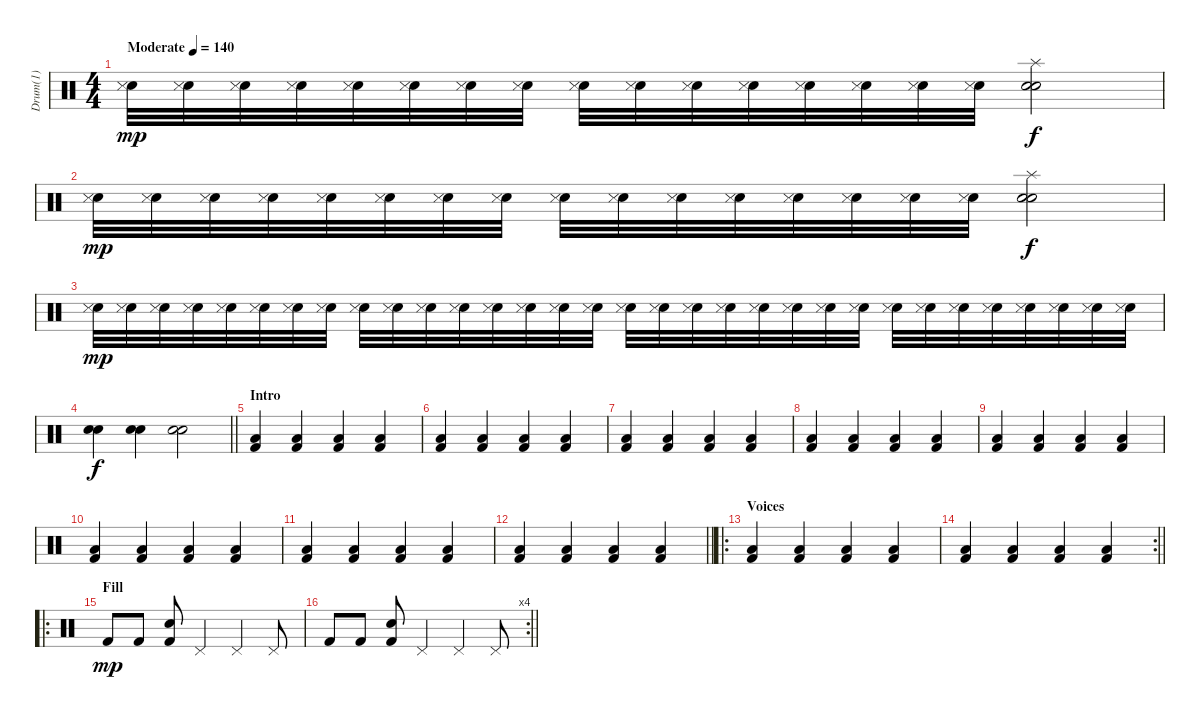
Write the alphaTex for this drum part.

\track ("Drum(1)" "Drum(1)") {instrument percussion}
\staff {score}
\articulation defaults
\ts (4 4)
\tempo (140 "Moderate")
\clef neutral
\ks c
("Electric Snare (hit)" "Snare (side stick) 3").32{dy mp} ("Electric Snare (hit)" "Snare (side stick) 3").32 ("Electric Snare (hit)" "Snare (side stick) 3").32 ("Electric Snare (hit)" "Snare (side stick) 3").32 ("Electric Snare (hit)" "Snare (side stick) 3").32 ("Electric Snare (hit)" "Snare (side stick) 3").32 ("Electric Snare (hit)" "Snare (side stick) 3").32 ("Electric Snare (hit)" "Snare (side stick) 3").32 ("Electric Snare (hit)" "Snare (side stick) 3").32 ("Electric Snare (hit)" "Snare (side stick) 3").32 ("Electric Snare (hit)" "Snare (side stick) 3").32 ("Electric Snare (hit)" "Snare (side stick) 3").32 ("Electric Snare (hit)" "Snare (side stick) 3").32 ("Electric Snare (hit)" "Snare (side stick) 3").32 ("Electric Snare (hit)" "Snare (side stick) 3").32 ("Electric Snare (hit)" "Snare (side stick) 3").32 ("Snare (hit) 2" "Electric Snare (hit)" "Splash (hit)").2{dy f} |
("Electric Snare (hit)" "Snare (side stick) 3").32{dy mp} ("Electric Snare (hit)" "Snare (side stick) 3").32 ("Electric Snare (hit)" "Snare (side stick) 3").32 ("Electric Snare (hit)" "Snare (side stick) 3").32 ("Electric Snare (hit)" "Snare (side stick) 3").32 ("Electric Snare (hit)" "Snare (side stick) 3").32 ("Electric Snare (hit)" "Snare (side stick) 3").32 ("Electric Snare (hit)" "Snare (side stick) 3").32 ("Electric Snare (hit)" "Snare (side stick) 3").32 ("Electric Snare (hit)" "Snare (side stick) 3").32 ("Electric Snare (hit)" "Snare (side stick) 3").32 ("Electric Snare (hit)" "Snare (side stick) 3").32 ("Electric Snare (hit)" "Snare (side stick) 3").32 ("Electric Snare (hit)" "Snare (side stick) 3").32 ("Electric Snare (hit)" "Snare (side stick) 3").32 ("Electric Snare (hit)" "Snare (side stick) 3").32 ("Snare (hit) 2" "Electric Snare (hit)" "Splash (hit)").2{dy f} |
("Electric Snare (hit)" "Snare (side stick) 3").32{dy mp} ("Electric Snare (hit)" "Snare (side stick) 3").32 ("Electric Snare (hit)" "Snare (side stick) 3").32 ("Electric Snare (hit)" "Snare (side stick) 3").32 ("Electric Snare (hit)" "Snare (side stick) 3").32 ("Electric Snare (hit)" "Snare (side stick) 3").32 ("Electric Snare (hit)" "Snare (side stick) 3").32 ("Electric Snare (hit)" "Snare (side stick) 3").32 ("Electric Snare (hit)" "Snare (side stick) 3").32 ("Electric Snare (hit)" "Snare (side stick) 3").32 ("Electric Snare (hit)" "Snare (side stick) 3").32 ("Electric Snare (hit)" "Snare (side stick) 3").32 ("Electric Snare (hit)" "Snare (side stick) 3").32 ("Electric Snare (hit)" "Snare (side stick) 3").32 ("Electric Snare (hit)" "Snare (side stick) 3").32 ("Electric Snare (hit)" "Snare (side stick) 3").32 ("Electric Snare (hit)" "Snare (side stick) 3").32 ("Electric Snare (hit)" "Snare (side stick) 3").32 ("Electric Snare (hit)" "Snare (side stick) 3").32 ("Electric Snare (hit)" "Snare (side stick) 3").32 ("Electric Snare (hit)" "Snare (side stick) 3").32 ("Electric Snare (hit)" "Snare (side stick) 3").32 ("Electric Snare (hit)" "Snare (side stick) 3").32 ("Electric Snare (hit)" "Snare (side stick) 3").32 ("Electric Snare (hit)" "Snare (side stick) 3").32 ("Electric Snare (hit)" "Snare (side stick) 3").32 ("Electric Snare (hit)" "Snare (side stick) 3").32 ("Electric Snare (hit)" "Snare (side stick) 3").32 ("Electric Snare (hit)" "Snare (side stick) 3").32 ("Electric Snare (hit)" "Snare (side stick) 3").32 ("Electric Snare (hit)" "Snare (side stick) 3").32 ("Electric Snare (hit)" "Snare (side stick) 3").32 |
\barLineRight lightlight
("Snare (hit) 2" "Electric Snare (hit)").4{dy f} ("Snare (hit) 2" "Electric Snare (hit)").4 ("Snare (hit) 2" "Electric Snare (hit)").2 |
\section ("" "Intro")
("Low Floor Tom (hit)" "Kick (hit) 2").4 ("Low Floor Tom (hit)" "Kick (hit) 2").4 ("Low Floor Tom (hit)" "Kick (hit) 2").4 ("Low Floor Tom (hit)" "Kick (hit) 2").4 |
("Low Floor Tom (hit)" "Kick (hit) 2").4 ("Low Floor Tom (hit)" "Kick (hit) 2").4 ("Low Floor Tom (hit)" "Kick (hit) 2").4 ("Low Floor Tom (hit)" "Kick (hit) 2").4 |
("Low Floor Tom (hit)" "Kick (hit) 2").4 ("Low Floor Tom (hit)" "Kick (hit) 2").4 ("Low Floor Tom (hit)" "Kick (hit) 2").4 ("Low Floor Tom (hit)" "Kick (hit) 2").4 |
("Low Floor Tom (hit)" "Kick (hit) 2").4 ("Low Floor Tom (hit)" "Kick (hit) 2").4 ("Low Floor Tom (hit)" "Kick (hit) 2").4 ("Low Floor Tom (hit)" "Kick (hit) 2").4 |
("Low Floor Tom (hit)" "Kick (hit) 2").4 ("Low Floor Tom (hit)" "Kick (hit) 2").4 ("Low Floor Tom (hit)" "Kick (hit) 2").4 ("Low Floor Tom (hit)" "Kick (hit) 2").4 |
("Low Floor Tom (hit)" "Kick (hit) 2").4 ("Low Floor Tom (hit)" "Kick (hit) 2").4 ("Low Floor Tom (hit)" "Kick (hit) 2").4 ("Low Floor Tom (hit)" "Kick (hit) 2").4 |
("Low Floor Tom (hit)" "Kick (hit) 2").4 ("Low Floor Tom (hit)" "Kick (hit) 2").4 ("Low Floor Tom (hit)" "Kick (hit) 2").4 ("Low Floor Tom (hit)" "Kick (hit) 2").4 |
\barLineRight lightlight
("Low Floor Tom (hit)" "Kick (hit) 2").4 ("Low Floor Tom (hit)" "Kick (hit) 2").4 ("Low Floor Tom (hit)" "Kick (hit) 2").4 ("Low Floor Tom (hit)" "Kick (hit) 2").4 |
\ro
\section ("" "Voices")
("Low Floor Tom (hit)" "Kick (hit) 2").4 ("Low Floor Tom (hit)" "Kick (hit) 2").4 ("Low Floor Tom (hit)" "Kick (hit) 2").4 ("Low Floor Tom (hit)" "Kick (hit) 2").4 |
\rc 2
\barLineRight lightlight
("Low Floor Tom (hit)" "Kick (hit) 2").4 ("Low Floor Tom (hit)" "Kick (hit) 2").4 ("Low Floor Tom (hit)" "Kick (hit) 2").4 ("Low Floor Tom (hit)" "Kick (hit) 2").4 |
\ro
\section ("" "Fill")
"Kick (hit) 2".8{dy mp volume 16} "Kick (hit) 2".8 ("Snare (hit) 2" "Kick (hit) 2").8 "Pedal Hi-Hat (hit)".4 "Pedal Hi-Hat (hit)".4 "Pedal Hi-Hat (hit)".8 |
\rc 4
\barLineRight lightlight "Kick (hit) 2".8 "Kick (hit) 2".8
("Snare (hit) 2" "Kick (hit) 2").8 "Pedal Hi-Hat (hit)".4 "Pedal Hi-Hat (hit)".4 "Pedal Hi-Hat (hit)".8
